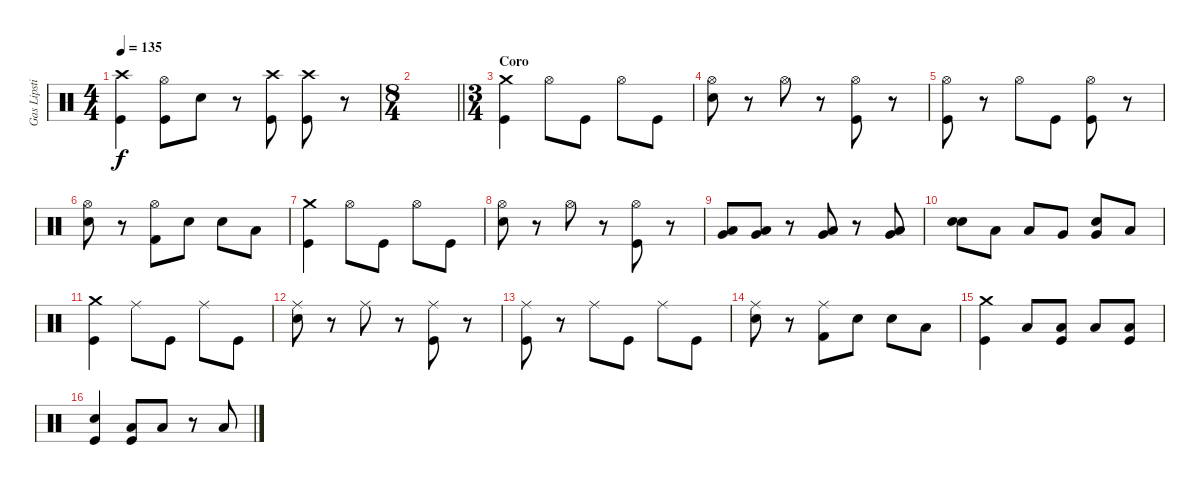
\track ("Gas Lipstick" "Gas Lipsti") {instrument percussion}
\staff {score}
\articulation defaults
\ts (4 4)
\tempo 135
\clef neutral
\ks c
("Crash high (hit)" "Kick (hit)").4{dy f} ("Hi-Hat (open)" "Kick (hit)").8 "Snare (hit) 2".8 r.8 ("Crash high (hit)" "Kick (hit)").8 ("Crash high (hit)" "Kick (hit)").8 r.8 |
\ts (8 4)
\barLineRight lightlight
|
\ts (3 4)
\section ("" "Coro")
("Crash medium (hit)" "Kick (hit)").4 "Hi-Hat (open)".8 "Kick (hit)".8 "Hi-Hat (open)".8 "Kick (hit)".8 |
("Hi-Hat (open)" "Snare (hit) 2").8 r.8 "Hi-Hat (open)".8 r.8 ("Hi-Hat (open)" "Kick (hit)").8 r.8 |
("Hi-Hat (open)" "Kick (hit)").8 r.8 "Hi-Hat (open)".8 "Kick (hit)".8 ("Hi-Hat (open)" "Kick (hit)").8 r.8 |
("Hi-Hat (open)" "Snare (hit) 2").8 r.8 ("Hi-Hat (open)" "Kick (hit) 2").8 "Snare (hit) 2".8 "Snare (hit) 2".8 "Low Tom (hit)".8 |
("Crash medium (hit)" "Kick (hit)").4 "Hi-Hat (open)".8 "Kick (hit)".8 "Hi-Hat (open)".8 "Kick (hit)".8 |
("Hi-Hat (open)" "Snare (hit) 2").8 r.8 "Hi-Hat (open)".8 r.8 ("Hi-Hat (open)" "Kick (hit)").8 r.8 |
("Low Tom (hit)" "Very Low Tom (hit)").8 ("Low Tom (hit)" "Very Low Tom (hit)").8 r.8 ("Low Tom (hit)" "Very Low Tom (hit)").8 r.8 ("Low Tom (hit)" "Very Low Tom (hit)").8 |
("Snare (hit) 2" "Snare (hit) 2").8{bd 60} "Low Tom (hit)".8 "Low Tom (hit)".8 "Very Low Tom (hit)".8 ("Very Low Tom (hit)" "Snare (hit) 2").8{bd 60} "Low Tom (hit)".8 |
("Crash medium (hit)" "Kick (hit)").4 "Ride (middle)".8 "Kick (hit)".8 "Ride (middle)".8 "Kick (hit)".8 |
("Ride (middle)" "Snare (hit) 2").8 r.8 "Ride (middle)".8 r.8 ("Ride (middle)" "Kick (hit)").8 r.8 |
("Ride (middle)" "Kick (hit)").8 r.8 "Ride (middle)".8 "Kick (hit)".8 "Ride (middle)".8 "Kick (hit)".8 |
("Ride (middle)" "Snare (hit) 2").8 r.8 ("Ride (middle)" "Kick (hit) 2").8 "Snare (hit) 2".8 "Snare (hit) 2".8 "Low Tom (hit)".8 |
("Crash medium (hit)" "Kick (hit)").4 "Low Tom (hit)".8 ("Low Tom (hit)" "Kick (hit)").8 "Low Tom (hit)".8 ("Low Tom (hit)" "Kick (hit)").8 |
("Snare (hit) 2" "Kick (hit)").4 ("Low Tom (hit)" "Kick (hit)").8 "Low Tom (hit)".8 r.8 "Low Tom (hit)".8
